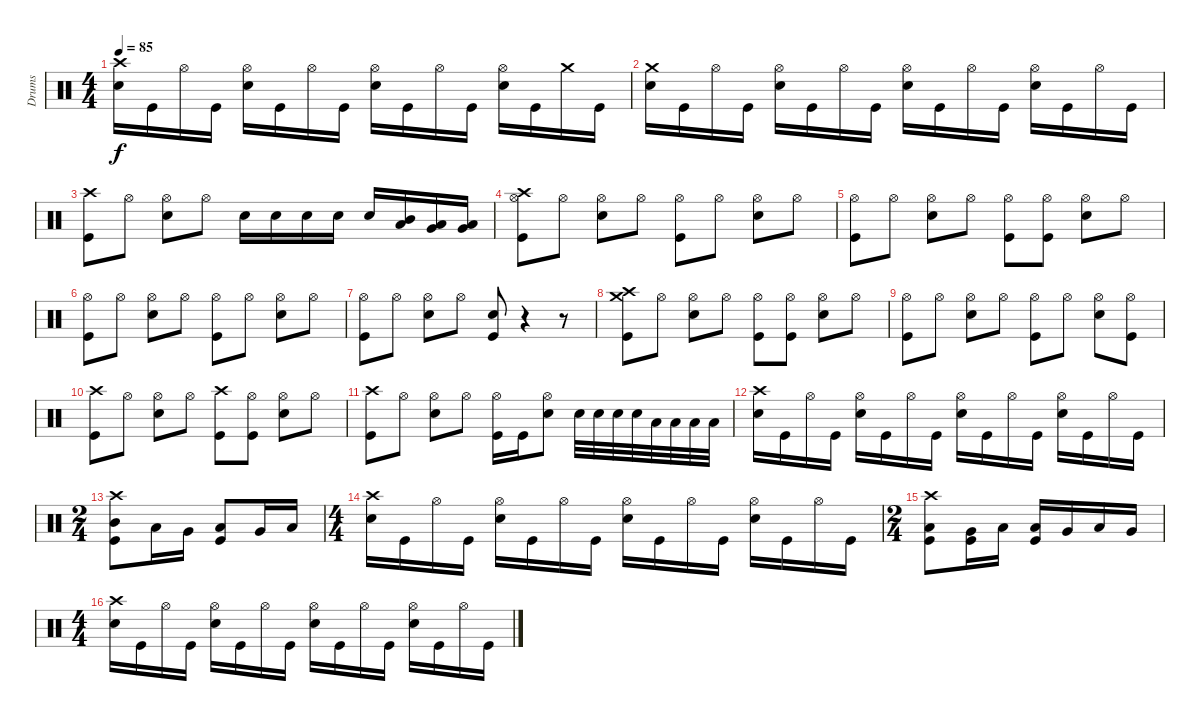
\track ("Drums" "Drums") {instrument percussion}
\staff {score}
\articulation defaults
\ts (4 4)
\tempo 85
\clef neutral
\ks c
("Snare (hit) 2" "Crash high (hit)").16{dy f} "Kick (hit)".16 "Hi-Hat (open)".16 "Kick (hit)".16 ("Snare (hit) 2" "Hi-Hat (open)").16 "Kick (hit)".16 "Hi-Hat (open)".16 "Kick (hit)".16 ("Snare (hit) 2" "Hi-Hat (open)").16 "Kick (hit)".16 "Hi-Hat (open)".16 "Kick (hit)".16 ("Snare (hit) 2" "Hi-Hat (open)").16 "Kick (hit)".16 "Crash medium (hit)".16 "Kick (hit)".16 |
("Snare (hit) 2" "Crash medium (hit)").16 "Kick (hit)".16 "Hi-Hat (open)".16 "Kick (hit)".16 ("Snare (hit) 2" "Hi-Hat (open)").16 "Kick (hit)".16 "Hi-Hat (open)".16 "Kick (hit)".16 ("Snare (hit) 2" "Hi-Hat (open)").16 "Kick (hit)".16 "Hi-Hat (open)".16 "Kick (hit)".16 ("Snare (hit) 2" "Hi-Hat (open)").16 "Kick (hit)".16 "Hi-Hat (open)".16 "Kick (hit)".16 |
("Crash high (hit)" "Kick (hit)").8 "Hi-Hat (open)".8 ("Snare (hit) 2" "Hi-Hat (open)").8 "Hi-Hat (open)".8 "Snare (hit) 2".16 "Snare (hit) 2".16 "Snare (hit) 2".16 "Snare (hit) 2".16 "Snare (hit) 2".16 ("Low Tom (hit)" "Mid Tom (hit)").16 ("Low Tom (hit)" "Very Low Tom (hit)").16 ("Low Floor Tom (hit)" "Very Low Tom (hit)").16 |
("Kick (hit)" "Hi-Hat (open)" "Crash high (hit)").8 "Hi-Hat (open)".8 ("Snare (hit) 2" "Hi-Hat (open)").8 "Hi-Hat (open)".8 ("Kick (hit)" "Hi-Hat (open)").8 "Hi-Hat (open)".8 ("Hi-Hat (open)" "Snare (hit) 2").8 "Hi-Hat (open)".8 |
("Kick (hit)" "Hi-Hat (open)").8 "Hi-Hat (open)".8 ("Snare (hit) 2" "Hi-Hat (open)").8 "Hi-Hat (open)".8 ("Kick (hit)" "Hi-Hat (open)").8 ("Kick (hit)" "Hi-Hat (open)").8 ("Hi-Hat (open)" "Snare (hit) 2").8 "Hi-Hat (open)".8 |
("Kick (hit)" "Hi-Hat (open)").8 "Hi-Hat (open)".8 ("Snare (hit) 2" "Hi-Hat (open)").8 "Hi-Hat (open)".8 ("Kick (hit)" "Hi-Hat (open)").8 "Hi-Hat (open)".8 ("Hi-Hat (open)" "Snare (hit) 2").8 "Hi-Hat (open)".8 |
("Kick (hit)" "Hi-Hat (open)").8 "Hi-Hat (open)".8 ("Hi-Hat (open)" "Snare (hit) 2").8 "Hi-Hat (open)".8 ("Snare (hit) 2" "Kick (hit)").8 r.4 r.8 |
("Crash medium (hit)" "Kick (hit)" "Crash high (hit)").8 "Hi-Hat (open)".8 ("Hi-Hat (open)" "Snare (hit) 2").8 "Hi-Hat (open)".8 ("Kick (hit)" "Hi-Hat (open)").8 ("Kick (hit)" "Hi-Hat (open)").8 ("Snare (hit) 2" "Hi-Hat (open)").8 "Hi-Hat (open)".8 |
("Kick (hit)" "Hi-Hat (open)").8 "Hi-Hat (open)".8 ("Snare (hit) 2" "Hi-Hat (open)").8 "Hi-Hat (open)".8 ("Kick (hit)" "Hi-Hat (open)").8 "Hi-Hat (open)".8 ("Snare (hit) 2" "Hi-Hat (open)").8 ("Kick (hit)" "Hi-Hat (open)").8 |
("Crash high (hit)" "Kick (hit)").8 "Hi-Hat (open)".8 ("Snare (hit) 2" "Hi-Hat (open)").8 "Hi-Hat (open)".8 ("Crash high (hit)" "Kick (hit)").8 ("Hi-Hat (open)" "Kick (hit)").8 ("Hi-Hat (open)" "Snare (hit) 2").8 "Hi-Hat (open)".8 |
("Kick (hit)" "Crash high (hit)").8 "Hi-Hat (open)".8 ("Hi-Hat (open)" "Snare (hit) 2").8 "Hi-Hat (open)".8 ("Kick (hit)" "Hi-Hat (open)").16 "Kick (hit)".16 ("Snare (hit) 2" "Hi-Hat (open)").8 "Snare (hit) 2".32 "Snare (hit) 2".32 "Snare (hit) 2".32 "Snare (hit) 2".32 "Low Floor Tom (hit)".32 "Low Floor Tom (hit)".32 "Low Floor Tom (hit)".32 "Low Floor Tom (hit)".32 |
("Snare (hit) 2" "Crash high (hit)").16 "Kick (hit)".16 "Hi-Hat (open)".16 "Kick (hit)".16 ("Snare (hit) 2" "Hi-Hat (open)").16 "Kick (hit)".16 "Hi-Hat (open)".16 "Kick (hit)".16 ("Snare (hit) 2" "Hi-Hat (open)").16 "Kick (hit)".16 "Hi-Hat (open)".16 "Kick (hit)".16 ("Snare (hit) 2" "Hi-Hat (open)").16 "Kick (hit)".16 "Hi-Hat (open)".16 "Kick (hit)".16 |
\ts (2 4)
("Mid Tom (hit)" "Kick (hit)" "Crash high (hit)").8 "Low Tom (hit)".16 "Very Low Tom (hit)".16 ("Low Tom (hit)" "Kick (hit)").8 "Very Low Tom (hit)".16 "Low Floor Tom (hit)".16 |
\ts (4 4)
("Snare (hit) 2" "Crash high (hit)").16 "Kick (hit)".16 "Hi-Hat (open)".16 "Kick (hit)".16 ("Snare (hit) 2" "Hi-Hat (open)").16 "Kick (hit)".16 "Hi-Hat (open)".16 "Kick (hit)".16 ("Snare (hit) 2" "Hi-Hat (open)").16 "Kick (hit)".16 "Hi-Hat (open)".16 "Kick (hit)".16 ("Snare (hit) 2" "Hi-Hat (open)").16 "Kick (hit)".16 "Hi-Hat (open)".16 "Kick (hit)".16 |
\ts (2 4)
("Low Tom (hit)" "Kick (hit)" "Crash high (hit)").8 ("Kick (hit)" "Very Low Tom (hit)").16 "Low Floor Tom (hit)".16 ("Low Tom (hit)" "Kick (hit)").16 "Very Low Tom (hit)".16 "Low Floor Tom (hit)".16 "Very Low Tom (hit)".16 |
\ts (4 4)
("Snare (hit) 2" "Crash high (hit)").16 "Kick (hit)".16 "Hi-Hat (open)".16 "Kick (hit)".16 ("Snare (hit) 2" "Hi-Hat (open)").16 "Kick (hit)".16 "Hi-Hat (open)".16 "Kick (hit)".16 ("Snare (hit) 2" "Hi-Hat (open)").16 "Kick (hit)".16 "Hi-Hat (open)".16 "Kick (hit)".16 ("Snare (hit) 2" "Hi-Hat (open)").16 "Kick (hit)".16 "Hi-Hat (open)".16 "Kick (hit)".16
